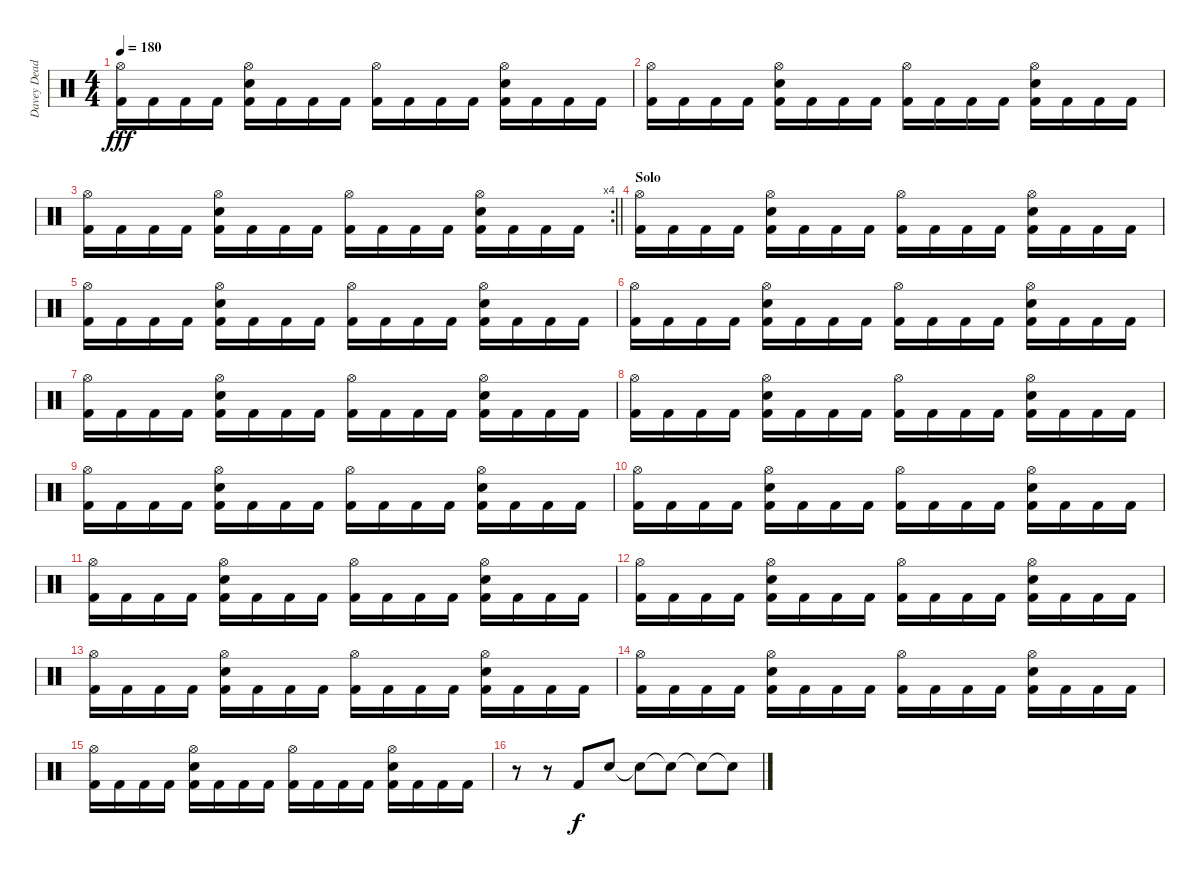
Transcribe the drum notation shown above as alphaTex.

\track ("Davey Dead" "Davey Dead") {instrument percussion}
\staff {score}
\articulation defaults
\ts (4 4)
\tempo 180
\clef neutral
\ks c
("Hi-Hat (open)" "Kick (hit) 2").16{dy fff} "Kick (hit) 2".16 "Kick (hit) 2".16 "Kick (hit) 2".16 ("Hi-Hat (open)" "Electric Snare (hit)" "Kick (hit) 2").16 "Kick (hit) 2".16 "Kick (hit) 2".16 "Kick (hit) 2".16 ("Hi-Hat (open)" "Kick (hit) 2").16 "Kick (hit) 2".16 "Kick (hit) 2".16 "Kick (hit) 2".16 ("Hi-Hat (open)" "Electric Snare (hit)" "Kick (hit) 2").16 "Kick (hit) 2".16 "Kick (hit) 2".16 "Kick (hit) 2".16 |
("Hi-Hat (open)" "Kick (hit) 2").16 "Kick (hit) 2".16 "Kick (hit) 2".16 "Kick (hit) 2".16 ("Hi-Hat (open)" "Electric Snare (hit)" "Kick (hit) 2").16 "Kick (hit) 2".16 "Kick (hit) 2".16 "Kick (hit) 2".16 ("Hi-Hat (open)" "Kick (hit) 2").16 "Kick (hit) 2".16 "Kick (hit) 2".16 "Kick (hit) 2".16 ("Hi-Hat (open)" "Electric Snare (hit)" "Kick (hit) 2").16 "Kick (hit) 2".16 "Kick (hit) 2".16 "Kick (hit) 2".16 |
\rc 4
\barLineRight lightlight
("Hi-Hat (open)" "Kick (hit) 2").16 "Kick (hit) 2".16 "Kick (hit) 2".16 "Kick (hit) 2".16 ("Hi-Hat (open)" "Electric Snare (hit)" "Kick (hit) 2").16 "Kick (hit) 2".16 "Kick (hit) 2".16 "Kick (hit) 2".16 ("Hi-Hat (open)" "Kick (hit) 2").16 "Kick (hit) 2".16 "Kick (hit) 2".16 "Kick (hit) 2".16 ("Hi-Hat (open)" "Electric Snare (hit)" "Kick (hit) 2").16 "Kick (hit) 2".16 "Kick (hit) 2".16 "Kick (hit) 2".16 |
\section ("" "Solo")
("Hi-Hat (open)" "Kick (hit) 2").16 "Kick (hit) 2".16 "Kick (hit) 2".16 "Kick (hit) 2".16 ("Hi-Hat (open)" "Electric Snare (hit)" "Kick (hit) 2").16 "Kick (hit) 2".16 "Kick (hit) 2".16 "Kick (hit) 2".16 ("Hi-Hat (open)" "Kick (hit) 2").16 "Kick (hit) 2".16 "Kick (hit) 2".16 "Kick (hit) 2".16 ("Hi-Hat (open)" "Electric Snare (hit)" "Kick (hit) 2").16 "Kick (hit) 2".16 "Kick (hit) 2".16 "Kick (hit) 2".16 |
("Hi-Hat (open)" "Kick (hit) 2").16 "Kick (hit) 2".16 "Kick (hit) 2".16 "Kick (hit) 2".16 ("Hi-Hat (open)" "Electric Snare (hit)" "Kick (hit) 2").16 "Kick (hit) 2".16 "Kick (hit) 2".16 "Kick (hit) 2".16 ("Hi-Hat (open)" "Kick (hit) 2").16 "Kick (hit) 2".16 "Kick (hit) 2".16 "Kick (hit) 2".16 ("Hi-Hat (open)" "Electric Snare (hit)" "Kick (hit) 2").16 "Kick (hit) 2".16 "Kick (hit) 2".16 "Kick (hit) 2".16 |
("Hi-Hat (open)" "Kick (hit) 2").16 "Kick (hit) 2".16 "Kick (hit) 2".16 "Kick (hit) 2".16 ("Hi-Hat (open)" "Electric Snare (hit)" "Kick (hit) 2").16 "Kick (hit) 2".16 "Kick (hit) 2".16 "Kick (hit) 2".16 ("Hi-Hat (open)" "Kick (hit) 2").16 "Kick (hit) 2".16 "Kick (hit) 2".16 "Kick (hit) 2".16 ("Hi-Hat (open)" "Electric Snare (hit)" "Kick (hit) 2").16 "Kick (hit) 2".16 "Kick (hit) 2".16 "Kick (hit) 2".16 |
("Hi-Hat (open)" "Kick (hit) 2").16 "Kick (hit) 2".16 "Kick (hit) 2".16 "Kick (hit) 2".16 ("Hi-Hat (open)" "Electric Snare (hit)" "Kick (hit) 2").16 "Kick (hit) 2".16 "Kick (hit) 2".16 "Kick (hit) 2".16 ("Hi-Hat (open)" "Kick (hit) 2").16 "Kick (hit) 2".16 "Kick (hit) 2".16 "Kick (hit) 2".16 ("Hi-Hat (open)" "Electric Snare (hit)" "Kick (hit) 2").16 "Kick (hit) 2".16 "Kick (hit) 2".16 "Kick (hit) 2".16 |
("Hi-Hat (open)" "Kick (hit) 2").16 "Kick (hit) 2".16 "Kick (hit) 2".16 "Kick (hit) 2".16 ("Hi-Hat (open)" "Electric Snare (hit)" "Kick (hit) 2").16 "Kick (hit) 2".16 "Kick (hit) 2".16 "Kick (hit) 2".16 ("Hi-Hat (open)" "Kick (hit) 2").16 "Kick (hit) 2".16 "Kick (hit) 2".16 "Kick (hit) 2".16 ("Hi-Hat (open)" "Electric Snare (hit)" "Kick (hit) 2").16 "Kick (hit) 2".16 "Kick (hit) 2".16 "Kick (hit) 2".16 |
("Hi-Hat (open)" "Kick (hit) 2").16 "Kick (hit) 2".16 "Kick (hit) 2".16 "Kick (hit) 2".16 ("Hi-Hat (open)" "Electric Snare (hit)" "Kick (hit) 2").16 "Kick (hit) 2".16 "Kick (hit) 2".16 "Kick (hit) 2".16 ("Hi-Hat (open)" "Kick (hit) 2").16 "Kick (hit) 2".16 "Kick (hit) 2".16 "Kick (hit) 2".16 ("Hi-Hat (open)" "Electric Snare (hit)" "Kick (hit) 2").16 "Kick (hit) 2".16 "Kick (hit) 2".16 "Kick (hit) 2".16 |
("Hi-Hat (open)" "Kick (hit) 2").16 "Kick (hit) 2".16 "Kick (hit) 2".16 "Kick (hit) 2".16 ("Hi-Hat (open)" "Electric Snare (hit)" "Kick (hit) 2").16 "Kick (hit) 2".16 "Kick (hit) 2".16 "Kick (hit) 2".16 ("Hi-Hat (open)" "Kick (hit) 2").16 "Kick (hit) 2".16 "Kick (hit) 2".16 "Kick (hit) 2".16 ("Hi-Hat (open)" "Electric Snare (hit)" "Kick (hit) 2").16 "Kick (hit) 2".16 "Kick (hit) 2".16 "Kick (hit) 2".16 |
("Hi-Hat (open)" "Kick (hit) 2").16 "Kick (hit) 2".16 "Kick (hit) 2".16 "Kick (hit) 2".16 ("Hi-Hat (open)" "Electric Snare (hit)" "Kick (hit) 2").16 "Kick (hit) 2".16 "Kick (hit) 2".16 "Kick (hit) 2".16 ("Hi-Hat (open)" "Kick (hit) 2").16 "Kick (hit) 2".16 "Kick (hit) 2".16 "Kick (hit) 2".16 ("Hi-Hat (open)" "Electric Snare (hit)" "Kick (hit) 2").16 "Kick (hit) 2".16 "Kick (hit) 2".16 "Kick (hit) 2".16 |
("Hi-Hat (open)" "Kick (hit) 2").16 "Kick (hit) 2".16 "Kick (hit) 2".16 "Kick (hit) 2".16 ("Hi-Hat (open)" "Electric Snare (hit)" "Kick (hit) 2").16 "Kick (hit) 2".16 "Kick (hit) 2".16 "Kick (hit) 2".16 ("Hi-Hat (open)" "Kick (hit) 2").16 "Kick (hit) 2".16 "Kick (hit) 2".16 "Kick (hit) 2".16 ("Hi-Hat (open)" "Electric Snare (hit)" "Kick (hit) 2").16 "Kick (hit) 2".16 "Kick (hit) 2".16 "Kick (hit) 2".16 |
("Hi-Hat (open)" "Kick (hit) 2").16 "Kick (hit) 2".16 "Kick (hit) 2".16 "Kick (hit) 2".16 ("Hi-Hat (open)" "Electric Snare (hit)" "Kick (hit) 2").16 "Kick (hit) 2".16 "Kick (hit) 2".16 "Kick (hit) 2".16 ("Hi-Hat (open)" "Kick (hit) 2").16 "Kick (hit) 2".16 "Kick (hit) 2".16 "Kick (hit) 2".16 ("Hi-Hat (open)" "Electric Snare (hit)" "Kick (hit) 2").16 "Kick (hit) 2".16 "Kick (hit) 2".16 "Kick (hit) 2".16 |
("Hi-Hat (open)" "Kick (hit) 2").16 "Kick (hit) 2".16 "Kick (hit) 2".16 "Kick (hit) 2".16 ("Hi-Hat (open)" "Electric Snare (hit)" "Kick (hit) 2").16 "Kick (hit) 2".16 "Kick (hit) 2".16 "Kick (hit) 2".16 ("Hi-Hat (open)" "Kick (hit) 2").16 "Kick (hit) 2".16 "Kick (hit) 2".16 "Kick (hit) 2".16 ("Hi-Hat (open)" "Electric Snare (hit)" "Kick (hit) 2").16 "Kick (hit) 2".16 "Kick (hit) 2".16 "Kick (hit) 2".16 |
("Hi-Hat (open)" "Kick (hit) 2").16 "Kick (hit) 2".16 "Kick (hit) 2".16 "Kick (hit) 2".16 ("Hi-Hat (open)" "Electric Snare (hit)" "Kick (hit) 2").16 "Kick (hit) 2".16 "Kick (hit) 2".16 "Kick (hit) 2".16 ("Hi-Hat (open)" "Kick (hit) 2").16 "Kick (hit) 2".16 "Kick (hit) 2".16 "Kick (hit) 2".16 ("Hi-Hat (open)" "Electric Snare (hit)" "Kick (hit) 2").16 "Kick (hit) 2".16 "Kick (hit) 2".16 "Kick (hit) 2".16 |
r.8 r.8 "Kick (hit) 2".8{dy f} "Electric Snare (hit)".8 "Snare (hit)"{t}.8 "Snare (hit)"{t}.8 "Snare (hit)"{t}.8 "Snare (hit)"{t}.8
